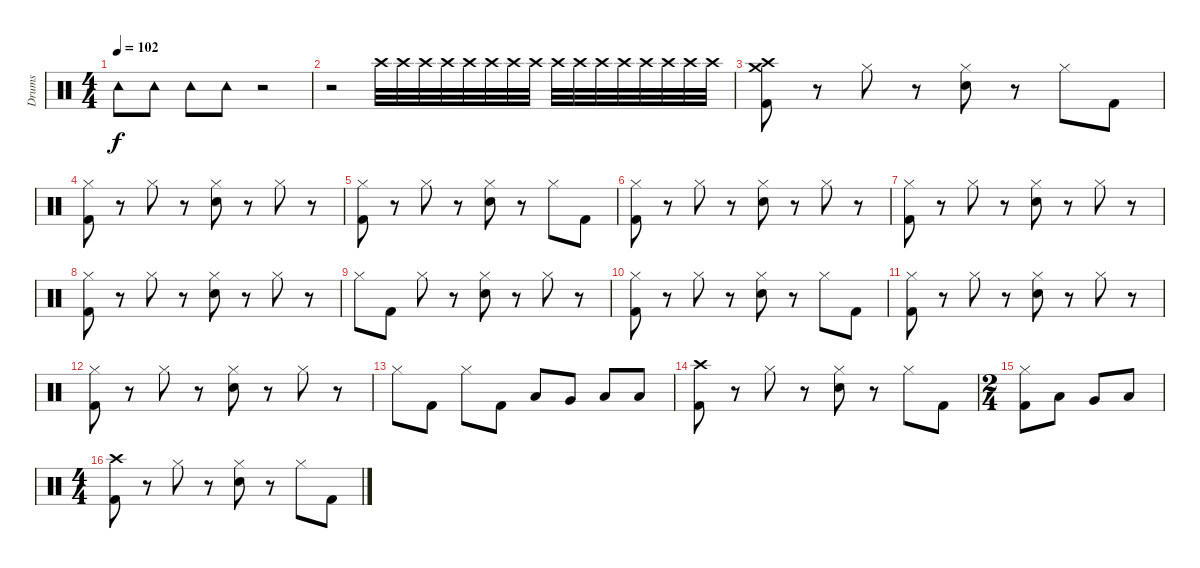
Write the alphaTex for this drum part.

\track ("Drums" "Drums") {instrument percussion}
\staff {score}
\articulation defaults
\ts (4 4)
\tempo 102
\clef neutral
\ks c "Tambourine (hit)".8{dy f} "Tambourine (hit)".8 "Tambourine (hit)".8 "Tambourine (hit)".8
r.2 |
r.2 "Crash high (hit)".32{volume 11} "Crash high (hit)".32 "Crash high (hit)".32 "Crash high (hit)".32 "Crash high (hit)".32 "Crash high (hit)".32 "Crash high (hit)".32 "Crash high (hit)".32 "Crash high (hit)".32 "Crash high (hit)".32 "Crash high (hit)".32 "Crash high (hit)".32 "Crash high (hit)".32 "Crash high (hit)".32 "Crash high (hit)".32 "Crash high (hit)".32 |
("Crash high (hit)" "Crash medium (hit)" "Kick (hit) 2").8 r.8 "Hi-Hat (closed)".8 r.8 ("Hi-Hat (closed)" "Snare (hit) 2").8 r.8 "Hi-Hat (closed)".8 "Kick (hit) 2".8 |
("Hi-Hat (closed)" "Kick (hit) 2").8 r.8 "Hi-Hat (closed)".8 r.8 ("Hi-Hat (closed)" "Snare (hit) 2").8 r.8 "Hi-Hat (closed)".8 r.8 |
("Hi-Hat (closed)" "Kick (hit) 2").8 r.8 "Hi-Hat (closed)".8 r.8 ("Hi-Hat (closed)" "Snare (hit) 2").8 r.8 "Hi-Hat (closed)".8 "Kick (hit) 2".8 |
("Hi-Hat (closed)" "Kick (hit) 2").8 r.8 "Hi-Hat (closed)".8 r.8 ("Hi-Hat (closed)" "Snare (hit) 2").8 r.8 "Hi-Hat (closed)".8 r.8 |
("Hi-Hat (closed)" "Kick (hit) 2").8 r.8 "Hi-Hat (closed)".8 r.8 ("Hi-Hat (closed)" "Snare (hit) 2").8 r.8 "Hi-Hat (closed)".8 r.8 |
("Hi-Hat (closed)" "Kick (hit) 2").8 r.8 "Hi-Hat (closed)".8 r.8 ("Hi-Hat (closed)" "Snare (hit) 2").8 r.8 "Hi-Hat (closed)".8 r.8 |
"Hi-Hat (closed)".8 "Kick (hit) 2".8 "Hi-Hat (closed)".8 r.8 ("Hi-Hat (closed)" "Snare (hit) 2").8 r.8 "Hi-Hat (closed)".8 r.8 |
("Hi-Hat (closed)" "Kick (hit) 2").8 r.8 "Hi-Hat (closed)".8 r.8 ("Hi-Hat (closed)" "Snare (hit) 2").8 r.8 "Hi-Hat (closed)".8 "Kick (hit) 2".8 |
("Hi-Hat (closed)" "Kick (hit) 2").8 r.8 "Hi-Hat (closed)".8 r.8 ("Hi-Hat (closed)" "Snare (hit) 2").8 r.8 "Hi-Hat (closed)".8 r.8 |
("Hi-Hat (closed)" "Kick (hit) 2").8 r.8 "Hi-Hat (closed)".8 r.8 ("Hi-Hat (closed)" "Snare (hit) 2").8 r.8 "Hi-Hat (closed)".8 r.8 |
"Hi-Hat (closed)".8 "Kick (hit) 2".8 "Hi-Hat (closed)".8 "Kick (hit) 2".8 "Low Tom (hit)".8 "Very Low Tom (hit)".8 "Low Floor Tom (hit)".8 "Low Floor Tom (hit)".8 |
("Crash high (hit)" "Kick (hit) 2").8 r.8 "Hi-Hat (closed)".8 r.8 ("Hi-Hat (closed)" "Snare (hit) 2").8 r.8 "Hi-Hat (closed)".8 "Kick (hit) 2".8 |
\ts (2 4)
("Hi-Hat (closed)" "Kick (hit) 2").8 "Low Tom (hit)".8 "Very Low Tom (hit)".8 "Low Floor Tom (hit)".8 |
\ts (4 4)
("Crash high (hit)" "Kick (hit) 2").8 r.8 "Hi-Hat (closed)".8 r.8 ("Hi-Hat (closed)" "Snare (hit) 2").8 r.8 "Hi-Hat (closed)".8 "Kick (hit) 2".8
